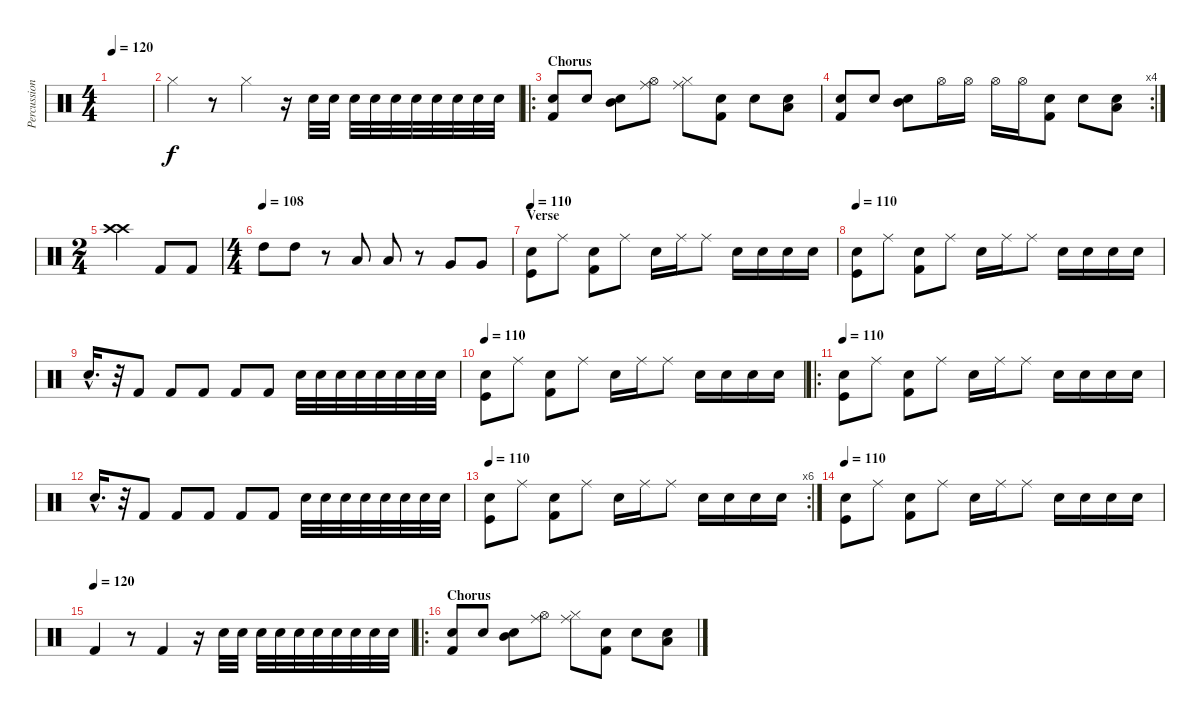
\track ("Percussions" "Percussion") {instrument percussion}
\staff {score}
\articulation defaults
\ts (4 4)
\tempo 120
\clef neutral
\ks c
|
"Hi-Hat (closed)".4 r.8 "Hi-Hat (closed)".4 r.16 "Snare (hit) 2".32 "Electric Snare (hit)".32 "Snare (hit) 2".32 "Electric Snare (hit)".32 "Snare (hit) 2".32 "Electric Snare (hit)".32 "Snare (hit) 2".32 "Electric Snare (hit)".32 "Snare (hit) 2".32 "Electric Snare (hit)".32 |
\ro
\section ("" "Chorus")
("Snare (hit) 2" "Kick (hit) 2").8 "Snare (hit) 2".8 ("Snare (hit) 2" "Mid Tom (hit)").8 ("Hi-Hat (open)" "Ride (middle)").8 ("Hi-Hat (closed)" "Ride (middle)").8 ("Snare (hit) 2" "Kick (hit) 2").8 "Snare (hit) 2".8 ("Snare (hit) 2" "Low Tom (hit)").8 |
\rc 4
("Snare (hit) 2" "Kick (hit) 2").8 "Snare (hit) 2".8 ("Snare (hit) 2" "Mid Tom (hit)").8 "Hi-Hat (open)".16 "Hi-Hat (open)".16 "Hi-Hat (open)".16 "Hi-Hat (open)".16 ("Snare (hit) 2" "Kick (hit) 2").8 "Snare (hit) 2".8 ("Snare (hit) 2" "Low Tom (hit)").8 |
\ts (2 4)
("Crash high (hit)" "Crash high (hit)").4 "Kick (hit) 2".8 "Kick (hit) 2".8 |
\ts (4 4)
\tempo (108)
"High Tom (hit)".8 "High Tom (hit)".8 r.8 "Low Tom (hit)".8 "Low Tom (hit)".8 r.8 "Very Low Tom (hit)".8 "Very Low Tom (hit)".8 |
\section ("" "Verse")
\tempo 110
("Snare (hit) 2" "Kick (hit)").8 "Ride (middle)".8 ("Snare (hit) 2" "Kick (hit) 2").8 "Ride (middle)".8 "Snare (hit) 2".16 "Ride (middle)".16 "Ride (middle)".8 "Snare (hit) 2".16 "Snare (hit) 2".16 "Snare (hit) 2".16 "Snare (hit) 2".16 |
\tempo 110
("Snare (hit) 2" "Kick (hit)").8 "Ride (middle)".8 ("Snare (hit) 2" "Kick (hit) 2").8 "Ride (middle)".8 "Snare (hit) 2".16 "Ride (middle)".16 "Ride (middle)".8 "Snare (hit) 2".16 "Snare (hit) 2".16 "Snare (hit) 2".16 "Snare (hit) 2".16 |
"Snare (hit) 2"{hac}.16{d} r.32 "Kick (hit) 2".8 "Kick (hit) 2".8 "Kick (hit) 2".8 "Kick (hit) 2".8 "Kick (hit) 2".8 "Snare (hit) 2".32 "Snare (hit) 2".32 "Snare (hit) 2".32 "Snare (hit) 2".32 "Snare (hit) 2".32 "Snare (hit) 2".32 "Snare (hit) 2".32 "Snare (hit) 2".32 |
\tempo 110
("Snare (hit) 2" "Kick (hit)").8 "Ride (middle)".8 ("Snare (hit) 2" "Kick (hit) 2").8 "Ride (middle)".8 "Snare (hit) 2".16 "Ride (middle)".16 "Ride (middle)".8 "Snare (hit) 2".16 "Snare (hit) 2".16 "Snare (hit) 2".16 "Snare (hit) 2".16 |
\ro
\tempo 110
("Snare (hit) 2" "Kick (hit)").8 "Ride (middle)".8 ("Snare (hit) 2" "Kick (hit) 2").8 "Ride (middle)".8 "Snare (hit) 2".16 "Ride (middle)".16 "Ride (middle)".8 "Snare (hit) 2".16 "Snare (hit) 2".16 "Snare (hit) 2".16 "Snare (hit) 2".16 |
"Snare (hit) 2"{hac}.16{d} r.32 "Kick (hit) 2".8 "Kick (hit) 2".8 "Kick (hit) 2".8 "Kick (hit) 2".8 "Kick (hit) 2".8 "Snare (hit) 2".32 "Snare (hit) 2".32 "Snare (hit) 2".32 "Snare (hit) 2".32 "Snare (hit) 2".32 "Snare (hit) 2".32 "Snare (hit) 2".32 "Snare (hit) 2".32 |
\rc 6
\tempo 110
("Snare (hit) 2" "Kick (hit)").8 "Ride (middle)".8 ("Snare (hit) 2" "Kick (hit) 2").8 "Ride (middle)".8 "Snare (hit) 2".16 "Ride (middle)".16 "Ride (middle)".8 "Snare (hit) 2".16 "Snare (hit) 2".16 "Snare (hit) 2".16 "Snare (hit) 2".16 |
\tempo 110
("Snare (hit) 2" "Kick (hit)").8 "Ride (middle)".8 ("Snare (hit) 2" "Kick (hit) 2").8 "Ride (middle)".8 "Snare (hit) 2".16 "Ride (middle)".16 "Ride (middle)".8 "Snare (hit) 2".16 "Snare (hit) 2".16 "Snare (hit) 2".16 "Snare (hit) 2".16 |
\tempo (120)
"Kick (hit) 2".4 r.8 "Kick (hit) 2".4 r.16 "Snare (hit) 2".32 "Electric Snare (hit)".32 "Snare (hit) 2".32 "Electric Snare (hit)".32 "Snare (hit) 2".32 "Electric Snare (hit)".32 "Snare (hit) 2".32 "Electric Snare (hit)".32 "Snare (hit) 2".32 "Electric Snare (hit)".32 |
\ro
\section ("" "Chorus")
("Snare (hit) 2" "Kick (hit) 2").8 "Snare (hit) 2".8 ("Snare (hit) 2" "Mid Tom (hit)").8 ("Hi-Hat (open)" "Ride (middle)").8 ("Hi-Hat (closed)" "Ride (middle)").8 ("Snare (hit) 2" "Kick (hit) 2").8 "Snare (hit) 2".8 ("Snare (hit) 2" "Low Tom (hit)").8
